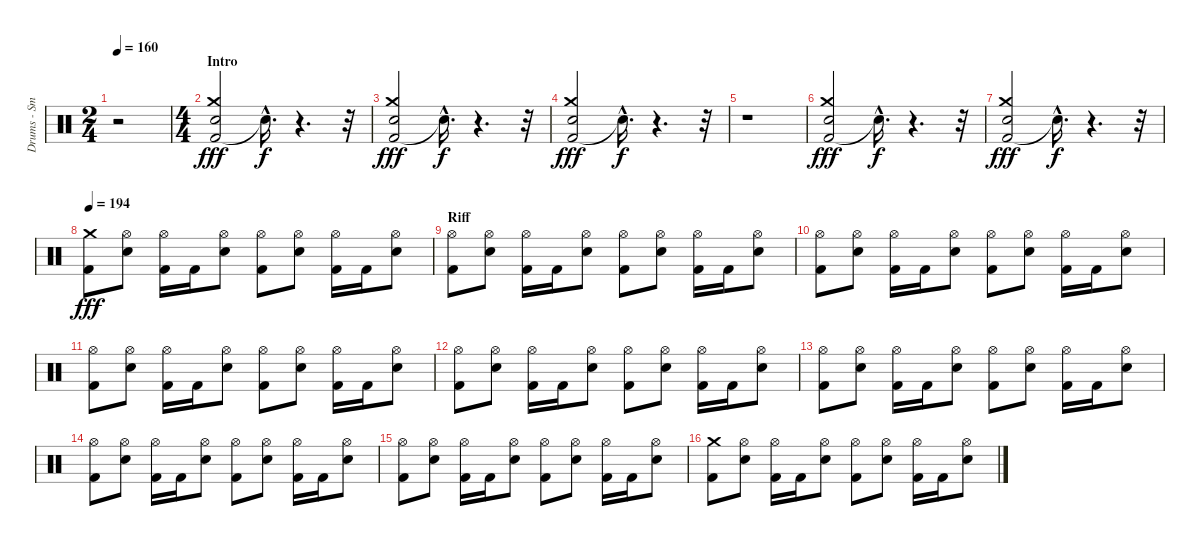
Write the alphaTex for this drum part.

\track ("Drums - Smelly" "Drums - Sm") {instrument percussion}
\staff {score}
\articulation defaults
\ts (2 4)
\tempo 160
\clef neutral
\ks c
r.2{dy fff} |
\ts (4 4)
\section ("" "Intro")
("Kick (hit) 2" "Crash medium (hit)" "Electric Snare (hit)").2 "Snare (hit)"{hac t}.16{d dy f} r.4{d} r.32 |
("Kick (hit) 2" "Crash medium (hit)" "Electric Snare (hit)").2{dy fff} "Snare (hit)"{hac t}.16{d dy f} r.4{d} r.32 |
("Kick (hit) 2" "Crash medium (hit)" "Electric Snare (hit)").2{dy fff} "Snare (hit)"{hac t}.16{d dy f} r.4{d} r.32 |
r.1 |
("Kick (hit) 2" "Crash medium (hit)" "Electric Snare (hit)").2{dy fff} "Snare (hit)"{hac t}.16{d dy f} r.4{d} r.32 |
("Kick (hit) 2" "Crash medium (hit)" "Electric Snare (hit)").2{dy fff} "Snare (hit)"{hac t}.16{d dy f} r.4{d} r.32 |
\tempo 194
("Kick (hit) 2" "Crash medium (hit)").8{dy fff} ("Electric Snare (hit)" "Hi-Hat (open)").8 ("Kick (hit) 2" "Hi-Hat (open)").16 "Kick (hit) 2".16 ("Electric Snare (hit)" "Hi-Hat (open)").8 ("Kick (hit) 2" "Hi-Hat (open)").8 ("Electric Snare (hit)" "Hi-Hat (open)").8 ("Kick (hit) 2" "Hi-Hat (open)").16 "Kick (hit) 2".16 ("Electric Snare (hit)" "Hi-Hat (open)").8 |
\section ("" "Riff ")
("Kick (hit) 2" "Hi-Hat (open)").8 ("Electric Snare (hit)" "Hi-Hat (open)").8 ("Kick (hit) 2" "Hi-Hat (open)").16 "Kick (hit) 2".16 ("Electric Snare (hit)" "Hi-Hat (open)").8 ("Kick (hit) 2" "Hi-Hat (open)").8 ("Electric Snare (hit)" "Hi-Hat (open)").8 ("Kick (hit) 2" "Hi-Hat (open)").16 "Kick (hit) 2".16 ("Electric Snare (hit)" "Hi-Hat (open)").8 |
("Kick (hit) 2" "Hi-Hat (open)").8 ("Electric Snare (hit)" "Hi-Hat (open)").8 ("Kick (hit) 2" "Hi-Hat (open)").16 "Kick (hit) 2".16 ("Electric Snare (hit)" "Hi-Hat (open)").8 ("Kick (hit) 2" "Hi-Hat (open)").8 ("Electric Snare (hit)" "Hi-Hat (open)").8 ("Kick (hit) 2" "Hi-Hat (open)").16 "Kick (hit) 2".16 ("Electric Snare (hit)" "Hi-Hat (open)").8 |
("Kick (hit) 2" "Hi-Hat (open)").8 ("Electric Snare (hit)" "Hi-Hat (open)").8 ("Kick (hit) 2" "Hi-Hat (open)").16 "Kick (hit) 2".16 ("Electric Snare (hit)" "Hi-Hat (open)").8 ("Kick (hit) 2" "Hi-Hat (open)").8 ("Electric Snare (hit)" "Hi-Hat (open)").8 ("Kick (hit) 2" "Hi-Hat (open)").16 "Kick (hit) 2".16 ("Electric Snare (hit)" "Hi-Hat (open)").8 |
("Kick (hit) 2" "Hi-Hat (open)").8 ("Electric Snare (hit)" "Hi-Hat (open)").8 ("Kick (hit) 2" "Hi-Hat (open)").16 "Kick (hit) 2".16 ("Electric Snare (hit)" "Hi-Hat (open)").8 ("Kick (hit) 2" "Hi-Hat (open)").8 ("Electric Snare (hit)" "Hi-Hat (open)").8 ("Kick (hit) 2" "Hi-Hat (open)").16 "Kick (hit) 2".16 ("Electric Snare (hit)" "Hi-Hat (open)").8 |
("Kick (hit) 2" "Hi-Hat (open)").8 ("Electric Snare (hit)" "Hi-Hat (open)").8 ("Kick (hit) 2" "Hi-Hat (open)").16 "Kick (hit) 2".16 ("Electric Snare (hit)" "Hi-Hat (open)").8 ("Kick (hit) 2" "Hi-Hat (open)").8 ("Electric Snare (hit)" "Hi-Hat (open)").8 ("Kick (hit) 2" "Hi-Hat (open)").16 "Kick (hit) 2".16 ("Electric Snare (hit)" "Hi-Hat (open)").8 |
("Kick (hit) 2" "Hi-Hat (open)").8 ("Electric Snare (hit)" "Hi-Hat (open)").8 ("Kick (hit) 2" "Hi-Hat (open)").16 "Kick (hit) 2".16 ("Electric Snare (hit)" "Hi-Hat (open)").8 ("Kick (hit) 2" "Hi-Hat (open)").8 ("Electric Snare (hit)" "Hi-Hat (open)").8 ("Kick (hit) 2" "Hi-Hat (open)").16 "Kick (hit) 2".16 ("Electric Snare (hit)" "Hi-Hat (open)").8 |
("Kick (hit) 2" "Hi-Hat (open)").8 ("Electric Snare (hit)" "Hi-Hat (open)").8 ("Kick (hit) 2" "Hi-Hat (open)").16 "Kick (hit) 2".16 ("Electric Snare (hit)" "Hi-Hat (open)").8 ("Kick (hit) 2" "Hi-Hat (open)").8 ("Electric Snare (hit)" "Hi-Hat (open)").8 ("Kick (hit) 2" "Hi-Hat (open)").16 "Kick (hit) 2".16 ("Electric Snare (hit)" "Hi-Hat (open)").8 |
("Kick (hit) 2" "Crash medium (hit)").8 ("Electric Snare (hit)" "Hi-Hat (open)").8 ("Kick (hit) 2" "Hi-Hat (open)").16 "Kick (hit) 2".16 ("Electric Snare (hit)" "Hi-Hat (open)").8 ("Kick (hit) 2" "Hi-Hat (open)").8 ("Electric Snare (hit)" "Hi-Hat (open)").8 ("Kick (hit) 2" "Hi-Hat (open)").16 "Kick (hit) 2".16 ("Electric Snare (hit)" "Hi-Hat (open)").8
